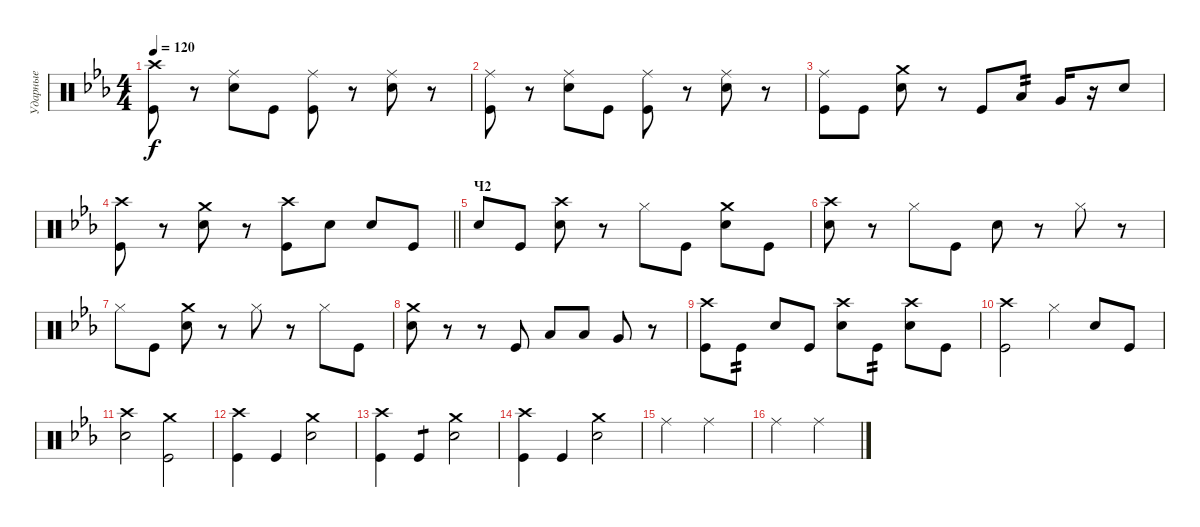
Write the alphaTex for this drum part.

\track ("Ударные" "Ударные") {instrument percussion}
\staff {score}
\articulation defaults
\ts (4 4)
\tempo 120
\clef neutral
\ks cminor
("Crash high (hit)" "Kick (hit)").8{dy f} r.8 ("Ride (middle)" "Snare (hit) 2").8 "Kick (hit)".8 ("Ride (middle)" "Kick (hit)").8 r.8 ("Ride (middle)" "Snare (hit) 2").8 r.8 |
("Ride (middle)" "Kick (hit)").8 r.8 ("Ride (middle)" "Snare (hit) 2").8 "Kick (hit)".8 ("Ride (middle)" "Kick (hit)").8 r.8 ("Ride (middle)" "Snare (hit) 2").8 r.8 |
("Ride (middle)" "Kick (hit)").8 "Kick (hit)".8 ("Crash medium (hit)" "Snare (hit) 2").8 r.8 "Kick (hit)".8 "Low Tom (hit)".8{tp 2} "Very Low Tom (hit)".16 r.16 "Snare (hit) 2".8 |
\barLineRight lightlight
("Crash high (hit)" "Kick (hit)").8 r.8 ("Crash medium (hit)" "Snare (hit) 2").8 r.8 ("Crash high (hit)" "Kick (hit)").8 "Snare (hit) 2".8 "Snare (hit) 2".8 "Kick (hit)".8 |
\section ("" "Ч2")
"Snare (hit) 2".8 "Kick (hit)".8 ("Crash high (hit)" "Snare (hit) 2").8 r.8 "Hi-Hat (closed)".8 "Kick (hit)".8 ("Crash medium (hit)" "Snare (hit) 2").8 "Kick (hit)".8 |
("Crash high (hit)" "Snare (hit) 2").8 r.8 "Hi-Hat (closed)".8 "Kick (hit)".8 "Snare (hit) 2".8 r.8 "Hi-Hat (closed)".8 r.8 |
"Hi-Hat (closed)".8 "Kick (hit)".8 ("Crash medium (hit)" "Snare (hit) 2").8 r.8 "Hi-Hat (closed)".8 r.8 "Hi-Hat (closed)".8 "Kick (hit)".8 |
("Crash medium (hit)" "Snare (hit) 2").8 r.8 r.8 "Kick (hit)".8 "Low Tom (hit)".8 "Low Tom (hit)".8 "Very Low Tom (hit)".8 r.8 |
("Crash high (hit)" "Kick (hit)").8 "Kick (hit)".8{tp 2} "Snare (hit) 2".8 "Kick (hit)".8 ("Crash high (hit)" "Snare (hit) 2").8 "Kick (hit)".8{tp 2} ("Crash high (hit)" "Snare (hit) 2").8 "Kick (hit)".8 |
("Crash high (hit)" "Kick (hit)").2 "Hi-Hat (closed)".4 "Snare (hit) 2".8 "Kick (hit)".8 |
("Crash high (hit)" "Snare (hit) 2").2 ("Crash medium (hit)" "Kick (hit)").2 |
("Crash high (hit)" "Kick (hit)").4 "Kick (hit)".4 ("Crash medium (hit)" "Snare (hit) 2").2 |
("Crash high (hit)" "Kick (hit)").4 "Kick (hit)".4{tp 1} ("Crash medium (hit)" "Snare (hit) 2").2 |
("Crash high (hit)" "Kick (hit)").4 "Kick (hit)".4 ("Crash medium (hit)" "Snare (hit) 2").2 |
"Ride (middle)".2 "Ride (middle)".2 |
"Ride (middle)".2 "Ride (middle)".2
